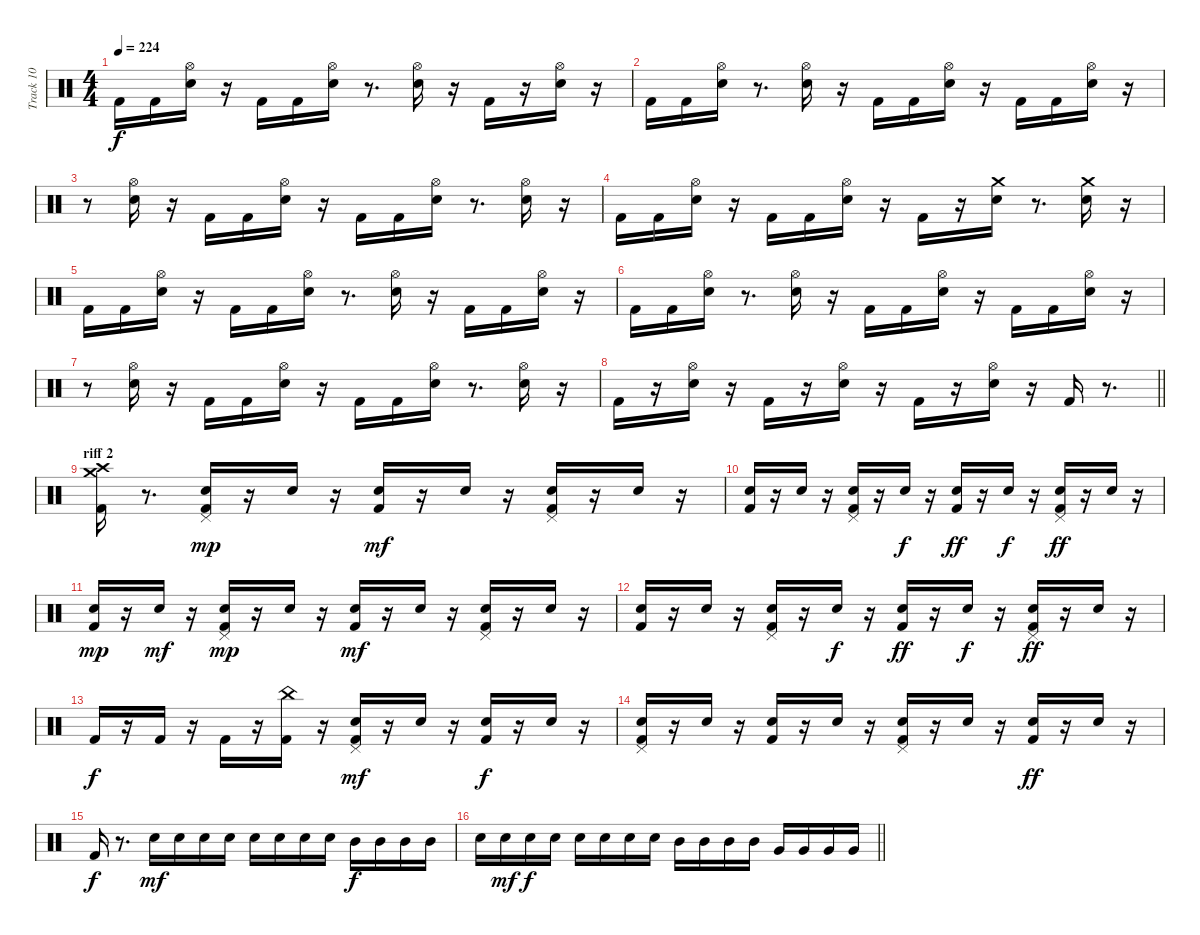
\track ("Track 10" "Track 10") {instrument percussion}
\staff {score}
\articulation defaults
\ts (4 4)
\tempo 224
\clef neutral
\ks c "Kick (hit) 2".16{dy f} "Kick (hit) 2".16
("Snare (hit) 2" "Hi-Hat (open)").16 r.16 "Kick (hit) 2".16 "Kick (hit) 2".16 ("Snare (hit) 2" "Hi-Hat (open)").16 r.8{d} ("Snare (hit) 2" "Hi-Hat (open)").16 r.16 "Kick (hit) 2".16 r.16 ("Snare (hit) 2" "Hi-Hat (open)").16 r.16 |
"Kick (hit) 2".16 "Kick (hit) 2".16 ("Snare (hit) 2" "Hi-Hat (open)").16 r.8{d} ("Snare (hit) 2" "Hi-Hat (open)").16 r.16 "Kick (hit) 2".16 "Kick (hit) 2".16 ("Snare (hit) 2" "Hi-Hat (open)").16 r.16 "Kick (hit) 2".16 "Kick (hit) 2".16 ("Snare (hit) 2" "Hi-Hat (open)").16 r.16 |
r.8 ("Snare (hit) 2" "Hi-Hat (open)").16 r.16 "Kick (hit) 2".16 "Kick (hit) 2".16 ("Snare (hit) 2" "Hi-Hat (open)").16 r.16 "Kick (hit) 2".16 "Kick (hit) 2".16 ("Snare (hit) 2" "Hi-Hat (open)").16 r.8{d} ("Snare (hit) 2" "Hi-Hat (open)").16 r.16 |
"Kick (hit) 2".16 "Kick (hit) 2".16 ("Snare (hit) 2" "Hi-Hat (open)").16 r.16 "Kick (hit) 2".16 "Kick (hit) 2".16 ("Snare (hit) 2" "Hi-Hat (open)").16 r.16 "Kick (hit) 2".16 r.16 ("Snare (hit) 2" "Crash medium (hit)").16 r.8{d} ("Snare (hit) 2" "Crash medium (hit)").16 r.16 |
"Kick (hit) 2".16 "Kick (hit) 2".16 ("Snare (hit) 2" "Hi-Hat (open)").16 r.16 "Kick (hit) 2".16 "Kick (hit) 2".16 ("Snare (hit) 2" "Hi-Hat (open)").16 r.8{d} ("Snare (hit) 2" "Hi-Hat (open)").16 r.16 "Kick (hit) 2".16 "Kick (hit) 2".16 ("Snare (hit) 2" "Hi-Hat (open)").16 r.16 |
"Kick (hit) 2".16 "Kick (hit) 2".16 ("Snare (hit) 2" "Hi-Hat (open)").16 r.8{d} ("Snare (hit) 2" "Hi-Hat (open)").16 r.16 "Kick (hit) 2".16 "Kick (hit) 2".16 ("Snare (hit) 2" "Hi-Hat (open)").16 r.16 "Kick (hit) 2".16 "Kick (hit) 2".16 ("Snare (hit) 2" "Hi-Hat (open)").16 r.16 |
r.8 ("Snare (hit) 2" "Hi-Hat (open)").16 r.16 "Kick (hit) 2".16 "Kick (hit) 2".16 ("Snare (hit) 2" "Hi-Hat (open)").16 r.16 "Kick (hit) 2".16 "Kick (hit) 2".16 ("Snare (hit) 2" "Hi-Hat (open)").16 r.8{d} ("Snare (hit) 2" "Hi-Hat (open)").16 r.16 |
\barLineRight lightlight "Kick (hit) 2".16
r.16 ("Snare (hit) 2" "Hi-Hat (open)").16 r.16 "Kick (hit) 2".16 r.16 ("Snare (hit) 2" "Hi-Hat (open)").16 r.16 "Kick (hit) 2".16 r.16 ("Snare (hit) 2" "Hi-Hat (open)").16 r.16 "Kick (hit) 2".16 r.8{d} |
\section ("" "riff 2")
("Kick (hit) 2" "Crash high (hit)" "Crash medium (hit)").16 r.8{d} ("Kick (hit) 2" "Snare (hit) 2" "Pedal Hi-Hat (hit)").16{dy mp} r.16 "Snare (hit) 2".16 r.16 ("Kick (hit) 2" "Snare (hit) 2").16{dy mf} r.16 "Snare (hit) 2".16 r.16 ("Kick (hit) 2" "Snare (hit) 2" "Pedal Hi-Hat (hit)").16 r.16 "Snare (hit) 2".16 r.16 |
("Kick (hit) 2" "Snare (hit) 2").16 r.16 "Snare (hit) 2".16 r.16 ("Kick (hit) 2" "Snare (hit) 2" "Pedal Hi-Hat (hit)").16 r.16 "Snare (hit) 2".16{dy f} r.16 ("Kick (hit) 2" "Snare (hit) 2").16{dy ff} r.16 "Snare (hit) 2".16{dy f} r.16 ("Kick (hit) 2" "Snare (hit) 2" "Pedal Hi-Hat (hit)").16{dy ff} r.16 "Snare (hit) 2".16 r.16 |
("Kick (hit) 2" "Snare (hit) 2").16{dy mp} r.16 "Snare (hit) 2".16{dy mf} r.16 ("Kick (hit) 2" "Snare (hit) 2" "Pedal Hi-Hat (hit)").16{dy mp} r.16 "Snare (hit) 2".16 r.16 ("Kick (hit) 2" "Snare (hit) 2").16{dy mf} r.16 "Snare (hit) 2".16 r.16 ("Kick (hit) 2" "Snare (hit) 2" "Pedal Hi-Hat (hit)").16 r.16 "Snare (hit) 2".16 r.16 |
("Kick (hit) 2" "Snare (hit) 2").16 r.16 "Snare (hit) 2".16 r.16 ("Kick (hit) 2" "Snare (hit) 2" "Pedal Hi-Hat (hit)").16 r.16 "Snare (hit) 2".16{dy f} r.16 ("Kick (hit) 2" "Snare (hit) 2").16{dy ff} r.16 "Snare (hit) 2".16{dy f} r.16 ("Kick (hit) 2" "Snare (hit) 2" "Pedal Hi-Hat (hit)").16{dy ff} r.16 "Snare (hit) 2".16 r.16 |
"Kick (hit) 2".16{dy f} r.16 "Kick (hit) 2".16 r.16 "Kick (hit) 2".16 r.16 ("Kick (hit) 2" "China (hit)").16 r.16 ("Kick (hit) 2" "Snare (hit) 2" "Pedal Hi-Hat (hit)").16{dy mf} r.16 "Snare (hit) 2".16 r.16 ("Kick (hit) 2" "Snare (hit) 2").16{dy f} r.16 "Snare (hit) 2".16 r.16 |
("Kick (hit) 2" "Snare (hit) 2" "Pedal Hi-Hat (hit)").16 r.16 "Snare (hit) 2".16 r.16 ("Kick (hit) 2" "Snare (hit) 2").16 r.16 "Snare (hit) 2".16 r.16 ("Kick (hit) 2" "Snare (hit) 2" "Pedal Hi-Hat (hit)").16 r.16 "Snare (hit) 2".16 r.16 ("Kick (hit) 2" "Snare (hit) 2").16{dy ff} r.16 "Snare (hit) 2".16 r.16 |
"Kick (hit) 2".16{dy f} r.8{d} "Snare (hit) 2".16{dy mf} "Snare (hit) 2".16 "Snare (hit) 2".16 "Snare (hit) 2".16 "Snare (hit) 2".16 "Snare (hit) 2".16 "Snare (hit) 2".16 "Snare (hit) 2".16 "Mid Tom (hit)".16{dy f} "Mid Tom (hit)".16 "Mid Tom (hit)".16 "Mid Tom (hit)".16 |
\barLineRight lightlight "Snare (hit) 2".16 "Snare (hit) 2".16{dy mf} "Snare (hit) 2".16{dy f} "Snare (hit) 2".16 "Snare (hit) 2".16 "Snare (hit) 2".16 "Snare (hit) 2".16 "Snare (hit) 2".16 "Mid Tom (hit)".16 "Mid Tom (hit)".16 "Mid Tom (hit)".16 "Mid Tom (hit)".16 "Very Low Tom (hit)".16 "Very Low Tom (hit)".16 "Very Low Tom (hit)".16 "Very Low Tom (hit)".16
